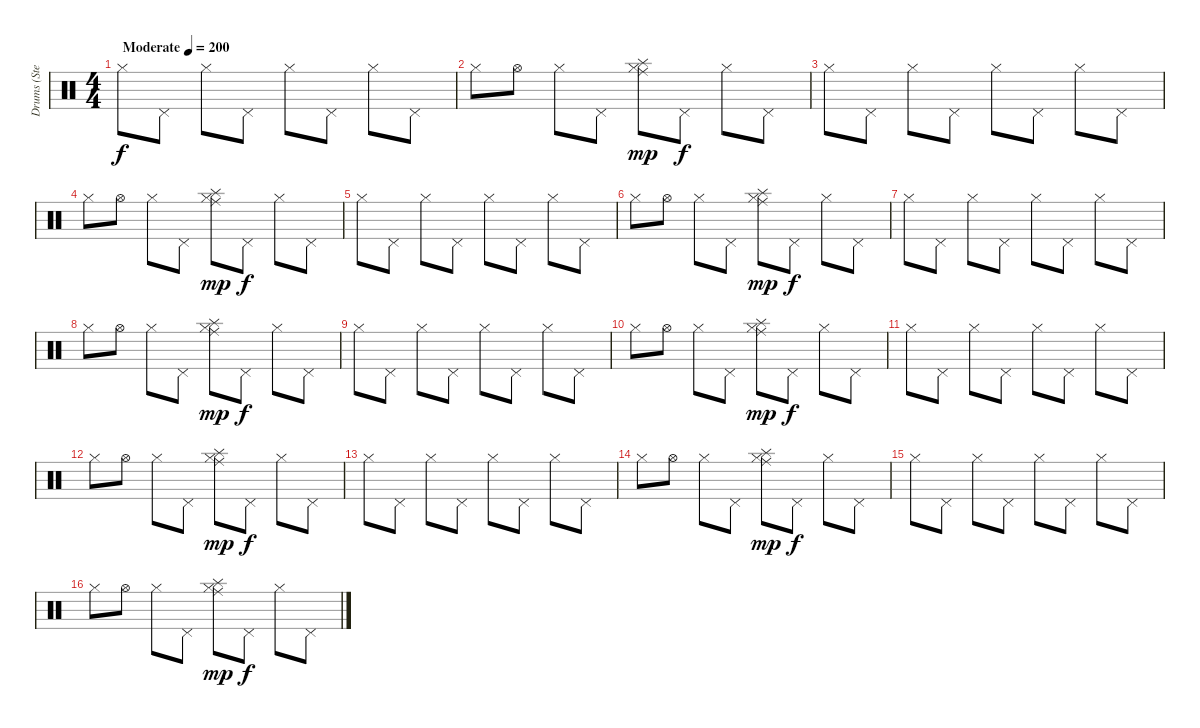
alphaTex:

\track ("Drums (Stevo32)" "Drums (Ste") {instrument percussion}
\staff {score}
\articulation defaults
\ts (4 4)
\tempo (200 "Moderate")
\clef neutral
\ks c "Hi-Hat (closed)".8{dy f} "Pedal Hi-Hat (hit)".8 "Hi-Hat (closed)".8 "Pedal Hi-Hat (hit)".8 "Hi-Hat (closed)".8 "Pedal Hi-Hat (hit)".8 "Hi-Hat (closed)".8 "Pedal Hi-Hat (hit)".8
|
"Hi-Hat (closed)".8 "Hi-Hat (open)".8 "Hi-Hat (closed)".8 "Pedal Hi-Hat (hit)".8 ("Hi-Hat (closed)" "Ride (middle)" "Splash (hit)").8{dy mp} "Pedal Hi-Hat (hit)".8{dy f} "Hi-Hat (closed)".8 "Pedal Hi-Hat (hit)".8 |
"Hi-Hat (closed)".8 "Pedal Hi-Hat (hit)".8 "Hi-Hat (closed)".8 "Pedal Hi-Hat (hit)".8 "Hi-Hat (closed)".8 "Pedal Hi-Hat (hit)".8 "Hi-Hat (closed)".8 "Pedal Hi-Hat (hit)".8 |
"Hi-Hat (closed)".8 "Hi-Hat (open)".8 "Hi-Hat (closed)".8 "Pedal Hi-Hat (hit)".8 ("Hi-Hat (closed)" "Ride (middle)" "Splash (hit)").8{dy mp} "Pedal Hi-Hat (hit)".8{dy f} "Hi-Hat (closed)".8 "Pedal Hi-Hat (hit)".8 |
"Hi-Hat (closed)".8 "Pedal Hi-Hat (hit)".8 "Hi-Hat (closed)".8 "Pedal Hi-Hat (hit)".8 "Hi-Hat (closed)".8 "Pedal Hi-Hat (hit)".8 "Hi-Hat (closed)".8 "Pedal Hi-Hat (hit)".8 |
"Hi-Hat (closed)".8 "Hi-Hat (open)".8 "Hi-Hat (closed)".8 "Pedal Hi-Hat (hit)".8 ("Hi-Hat (closed)" "Ride (middle)" "Splash (hit)").8{dy mp} "Pedal Hi-Hat (hit)".8{dy f} "Hi-Hat (closed)".8 "Pedal Hi-Hat (hit)".8 |
"Hi-Hat (closed)".8 "Pedal Hi-Hat (hit)".8 "Hi-Hat (closed)".8 "Pedal Hi-Hat (hit)".8 "Hi-Hat (closed)".8 "Pedal Hi-Hat (hit)".8 "Hi-Hat (closed)".8 "Pedal Hi-Hat (hit)".8 |
"Hi-Hat (closed)".8 "Hi-Hat (open)".8 "Hi-Hat (closed)".8 "Pedal Hi-Hat (hit)".8 ("Hi-Hat (closed)" "Ride (middle)" "Splash (hit)").8{dy mp} "Pedal Hi-Hat (hit)".8{dy f} "Hi-Hat (closed)".8 "Pedal Hi-Hat (hit)".8 |
"Hi-Hat (closed)".8 "Pedal Hi-Hat (hit)".8 "Hi-Hat (closed)".8 "Pedal Hi-Hat (hit)".8 "Hi-Hat (closed)".8 "Pedal Hi-Hat (hit)".8 "Hi-Hat (closed)".8 "Pedal Hi-Hat (hit)".8 |
"Hi-Hat (closed)".8 "Hi-Hat (open)".8 "Hi-Hat (closed)".8 "Pedal Hi-Hat (hit)".8 ("Hi-Hat (closed)" "Ride (middle)" "Splash (hit)").8{dy mp} "Pedal Hi-Hat (hit)".8{dy f} "Hi-Hat (closed)".8 "Pedal Hi-Hat (hit)".8 |
"Hi-Hat (closed)".8 "Pedal Hi-Hat (hit)".8 "Hi-Hat (closed)".8 "Pedal Hi-Hat (hit)".8 "Hi-Hat (closed)".8 "Pedal Hi-Hat (hit)".8 "Hi-Hat (closed)".8 "Pedal Hi-Hat (hit)".8 |
"Hi-Hat (closed)".8 "Hi-Hat (open)".8 "Hi-Hat (closed)".8 "Pedal Hi-Hat (hit)".8 ("Hi-Hat (closed)" "Ride (middle)" "Splash (hit)").8{dy mp} "Pedal Hi-Hat (hit)".8{dy f} "Hi-Hat (closed)".8 "Pedal Hi-Hat (hit)".8 |
"Hi-Hat (closed)".8 "Pedal Hi-Hat (hit)".8 "Hi-Hat (closed)".8 "Pedal Hi-Hat (hit)".8 "Hi-Hat (closed)".8 "Pedal Hi-Hat (hit)".8 "Hi-Hat (closed)".8 "Pedal Hi-Hat (hit)".8 |
"Hi-Hat (closed)".8 "Hi-Hat (open)".8 "Hi-Hat (closed)".8 "Pedal Hi-Hat (hit)".8 ("Hi-Hat (closed)" "Ride (middle)" "Splash (hit)").8{dy mp} "Pedal Hi-Hat (hit)".8{dy f} "Hi-Hat (closed)".8 "Pedal Hi-Hat (hit)".8 |
"Hi-Hat (closed)".8 "Pedal Hi-Hat (hit)".8 "Hi-Hat (closed)".8 "Pedal Hi-Hat (hit)".8 "Hi-Hat (closed)".8 "Pedal Hi-Hat (hit)".8 "Hi-Hat (closed)".8 "Pedal Hi-Hat (hit)".8 |
"Hi-Hat (closed)".8 "Hi-Hat (open)".8 "Hi-Hat (closed)".8 "Pedal Hi-Hat (hit)".8 ("Hi-Hat (closed)" "Ride (middle)" "Splash (hit)").8{dy mp} "Pedal Hi-Hat (hit)".8{dy f} "Hi-Hat (closed)".8 "Pedal Hi-Hat (hit)".8
